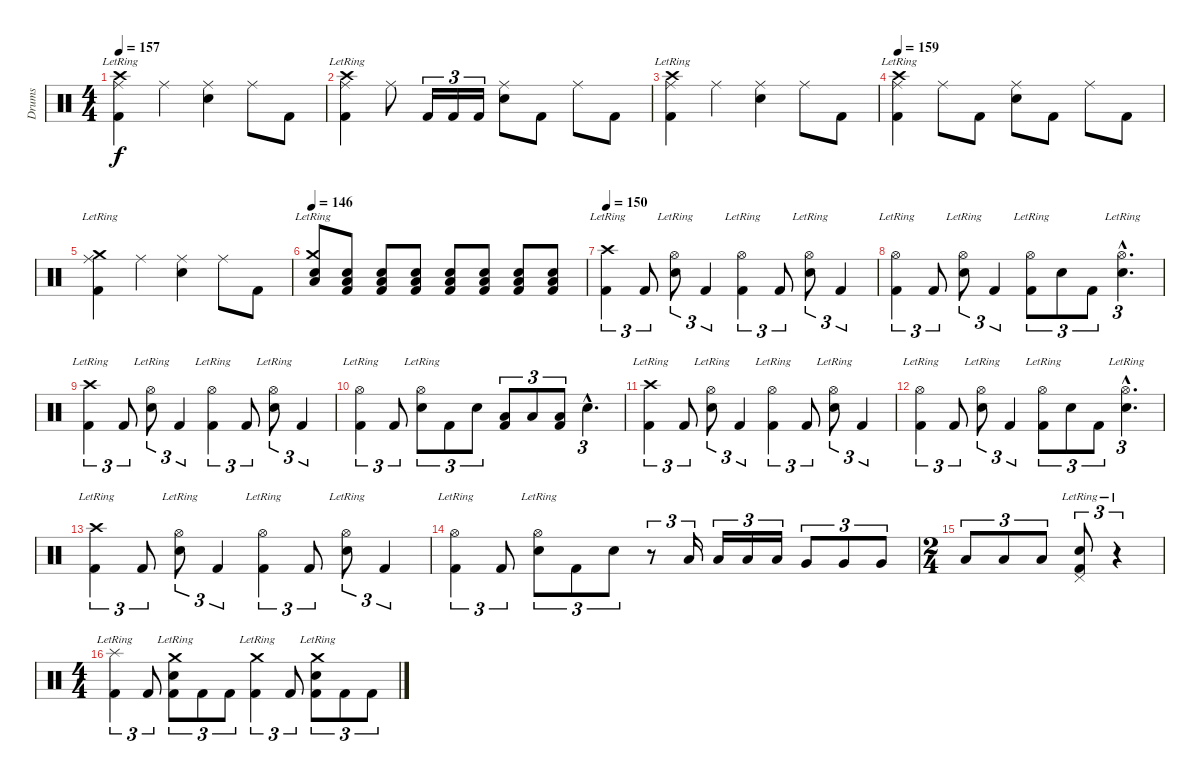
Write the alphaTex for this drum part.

\track ("Drums" "Drums") {instrument percussion}
\staff {score}
\articulation defaults
\ts (4 4)
\tempo 157
\clef neutral
\ks c
("Crash high (hit)"{lr} "Ride (middle)" "Kick (hit) 2").4{dy f} "Ride (middle)".4 ("Ride (middle)" "Snare (hit) 2").4 "Ride (middle)".8 "Kick (hit) 2".8 |
("Crash high (hit)"{lr} "Ride (middle)" "Kick (hit) 2").4 "Ride (middle)".8 "Kick (hit) 2".16{tu (3 2)} "Kick (hit) 2".16{tu (3 2)} "Kick (hit) 2".16{tu (3 2)} ("Ride (middle)" "Snare (hit) 2").8 "Kick (hit) 2".8 "Ride (middle)".8 "Kick (hit) 2".8 |
("Crash high (hit)"{lr} "Ride (middle)" "Kick (hit) 2").4 "Ride (middle)".4 ("Ride (middle)" "Snare (hit) 2").4 "Ride (middle)".8 "Kick (hit) 2".8 |
\tempo 159
("Crash high (hit)"{lr} "Ride (middle)" "Kick (hit) 2").4 "Ride (middle)".8 "Kick (hit) 2".8 ("Ride (middle)" "Snare (hit) 2").8 "Kick (hit) 2".8 "Ride (middle)".8 "Kick (hit) 2".8 |
("Crash medium (hit)"{lr} "Ride (middle)" "Kick (hit) 2").4 "Ride (middle)".4 ("Ride (middle)" "Snare (hit) 2").4 "Ride (middle)".8 "Kick (hit) 2".8 |
\tempo 146
("Crash medium (hit)"{lr} "Low Tom (hit)" "Snare (hit) 2").8 ("Low Tom (hit)" "Snare (hit) 2" "Kick (hit) 2").8 ("Low Tom (hit)" "Snare (hit) 2" "Kick (hit) 2").8 ("Low Tom (hit)" "Snare (hit) 2" "Kick (hit) 2").8 ("Low Tom (hit)" "Snare (hit) 2" "Kick (hit) 2").8 ("Low Tom (hit)" "Snare (hit) 2" "Kick (hit) 2").8 ("Low Tom (hit)" "Snare (hit) 2" "Kick (hit) 2").8 ("Low Tom (hit)" "Snare (hit) 2" "Kick (hit) 2").8 |
\tempo 150
("Crash high (hit)"{lr} "Kick (hit) 2").4{tu (3 2)} "Kick (hit) 2".8{tu (3 2)} ("Hi-Hat (open)"{lr} "Snare (hit) 2").8{tu (3 2)} "Kick (hit) 2".4{tu (3 2)} ("Hi-Hat (open)"{lr} "Kick (hit) 2").4{tu (3 2)} "Kick (hit) 2".8{tu (3 2)} ("Hi-Hat (open)"{lr} "Snare (hit) 2").8{tu (3 2)} "Kick (hit) 2".4{tu (3 2)} |
("Hi-Hat (open)"{lr} "Kick (hit) 2").4{tu (3 2)} "Kick (hit) 2".8{tu (3 2)} ("Hi-Hat (open)"{lr} "Snare (hit) 2").8{tu (3 2)} "Kick (hit) 2".4{tu (3 2)} ("Hi-Hat (open)"{lr} "Kick (hit) 2").8{tu (3 2)} "Snare (hit) 2".8{tu (3 2)} "Kick (hit) 2".8{tu (3 2)} ("Hi-Hat (open)"{hac lr} "Snare (hit) 2"{hac}).4{d tu (3 2)} |
("Crash high (hit)"{lr} "Kick (hit) 2").4{tu (3 2)} "Kick (hit) 2".8{tu (3 2)} ("Hi-Hat (open)"{lr} "Snare (hit) 2").8{tu (3 2)} "Kick (hit) 2".4{tu (3 2)} ("Hi-Hat (open)"{lr} "Kick (hit) 2").4{tu (3 2)} "Kick (hit) 2".8{tu (3 2)} ("Hi-Hat (open)"{lr} "Snare (hit) 2").8{tu (3 2)} "Kick (hit) 2".4{tu (3 2)} |
("Hi-Hat (open)"{lr} "Kick (hit) 2").4{tu (3 2)} "Kick (hit) 2".8{tu (3 2)} ("Hi-Hat (open)"{lr} "Snare (hit) 2").8{tu (3 2)} "Kick (hit) 2".8{tu (3 2)} "Snare (hit) 2".8{tu (3 2)} ("Low Tom (hit)" "Kick (hit) 2").8{tu (3 2)} "Low Tom (hit)".8{tu (3 2)} ("Low Tom (hit)" "Kick (hit) 2").8{tu (3 2)} "Snare (hit) 2"{hac}.4{d tu (3 2)} |
("Crash high (hit)"{lr} "Kick (hit) 2").4{tu (3 2)} "Kick (hit) 2".8{tu (3 2)} ("Hi-Hat (open)"{lr} "Snare (hit) 2").8{tu (3 2)} "Kick (hit) 2".4{tu (3 2)} ("Hi-Hat (open)"{lr} "Kick (hit) 2").4{tu (3 2)} "Kick (hit) 2".8{tu (3 2)} ("Hi-Hat (open)"{lr} "Snare (hit) 2").8{tu (3 2)} "Kick (hit) 2".4{tu (3 2)} |
("Hi-Hat (open)"{lr} "Kick (hit) 2").4{tu (3 2)} "Kick (hit) 2".8{tu (3 2)} ("Hi-Hat (open)"{lr} "Snare (hit) 2").8{tu (3 2)} "Kick (hit) 2".4{tu (3 2)} ("Hi-Hat (open)"{lr} "Kick (hit) 2").8{tu (3 2)} "Snare (hit) 2".8{tu (3 2)} "Kick (hit) 2".8{tu (3 2)} ("Hi-Hat (open)"{hac lr} "Snare (hit) 2"{hac}).4{d tu (3 2)} |
("Crash high (hit)"{lr} "Kick (hit) 2").4{tu (3 2)} "Kick (hit) 2".8{tu (3 2)} ("Hi-Hat (open)"{lr} "Snare (hit) 2").8{tu (3 2)} "Kick (hit) 2".4{tu (3 2)} ("Hi-Hat (open)"{lr} "Kick (hit) 2").4{tu (3 2)} "Kick (hit) 2".8{tu (3 2)} ("Hi-Hat (open)"{lr} "Snare (hit) 2").8{tu (3 2)} "Kick (hit) 2".4{tu (3 2)} |
("Hi-Hat (open)"{lr} "Kick (hit) 2").4{tu (3 2)} "Kick (hit) 2".8{tu (3 2)} ("Hi-Hat (open)"{lr} "Snare (hit) 2").8{tu (3 2)} "Kick (hit) 2".8{tu (3 2)} "Snare (hit) 2".8{tu (3 2)} r.8{tu (3 2)} "Low Tom (hit)".16{tu (3 2)} "Low Tom (hit)".16{tu (3 2)} "Low Tom (hit)".16{tu (3 2)} "Low Tom (hit)".16{tu (3 2)} "Very Low Tom (hit)".8{tu (3 2)} "Very Low Tom (hit)".8{tu (3 2)} "Very Low Tom (hit)".8{tu (3 2)} |
\ts (2 4)
"Low Floor Tom (hit)".8{tu (3 2)} "Low Floor Tom (hit)".8{tu (3 2)} "Low Floor Tom (hit)".8{tu (3 2)} ("Pedal Hi-Hat (hit)"{lr} "Snare (hit) 2" "Kick (hit) 2").8{tu (3 2)} r.4{tu (3 2)} |
\ts (4 4)
("Splash (hit)"{lr} "Kick (hit) 2").4{tu (3 2)} "Kick (hit) 2".8{tu (3 2)} ("Crash medium (hit)"{lr} "Snare (hit) 2" "Kick (hit) 2").8{tu (3 2)} "Kick (hit) 2".8{tu (3 2)} "Kick (hit) 2".8{tu (3 2)} ("Crash medium (hit)"{lr} "Kick (hit) 2").4{tu (3 2)} "Kick (hit) 2".8{tu (3 2)} ("Crash medium (hit)"{lr} "Snare (hit) 2" "Kick (hit) 2").8{tu (3 2)} "Kick (hit) 2".8{tu (3 2)} "Kick (hit) 2".8{tu (3 2)}
